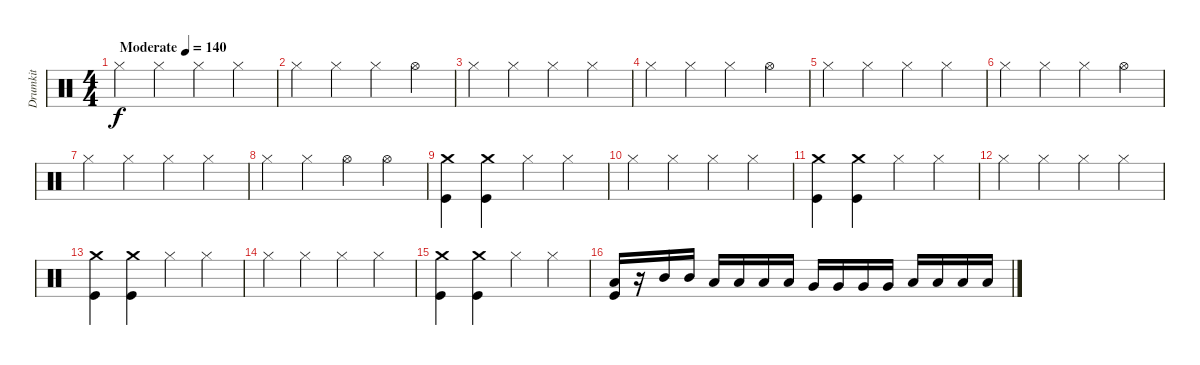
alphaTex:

\track ("Drumkit" "Drumkit") {instrument percussion}
\staff {score}
\articulation defaults
\ts (4 4)
\tempo (140 "Moderate")
\clef neutral
\ks c "Hi-Hat (closed)".4{dy f} "Hi-Hat (closed)".4 "Hi-Hat (closed)".4 "Hi-Hat (closed)".4
|
"Hi-Hat (closed)".4 "Hi-Hat (closed)".4 "Hi-Hat (closed)".4 "Hi-Hat (open)".4 |
"Hi-Hat (closed)".4 "Hi-Hat (closed)".4 "Hi-Hat (closed)".4 "Hi-Hat (closed)".4 |
"Hi-Hat (closed)".4 "Hi-Hat (closed)".4 "Hi-Hat (closed)".4 "Hi-Hat (open)".4 |
"Hi-Hat (closed)".4 "Hi-Hat (closed)".4 "Hi-Hat (closed)".4 "Hi-Hat (closed)".4 |
"Hi-Hat (closed)".4 "Hi-Hat (closed)".4 "Hi-Hat (closed)".4 "Hi-Hat (open)".4 |
"Hi-Hat (closed)".4 "Hi-Hat (closed)".4 "Hi-Hat (closed)".4 "Hi-Hat (closed)".4 |
"Hi-Hat (closed)".4 "Hi-Hat (closed)".4 "Hi-Hat (open)".4 "Hi-Hat (open)".4 |
("Crash medium (hit)" "Kick (hit)").4 ("Crash medium (hit)" "Kick (hit)").4 "Hi-Hat (closed)".4 "Hi-Hat (closed)".4 |
"Hi-Hat (closed)".4 "Hi-Hat (closed)".4 "Hi-Hat (closed)".4 "Hi-Hat (closed)".4 |
("Crash medium (hit)" "Kick (hit)").4 ("Crash medium (hit)" "Kick (hit)").4 "Hi-Hat (closed)".4 "Hi-Hat (closed)".4 |
"Hi-Hat (closed)".4 "Hi-Hat (closed)".4 "Hi-Hat (closed)".4 "Hi-Hat (closed)".4 |
("Crash medium (hit)" "Kick (hit)").4 ("Crash medium (hit)" "Kick (hit)").4 "Hi-Hat (closed)".4 "Hi-Hat (closed)".4 |
"Hi-Hat (closed)".4 "Hi-Hat (closed)".4 "Hi-Hat (closed)".4 "Hi-Hat (closed)".4 |
("Crash medium (hit)" "Kick (hit)").4 ("Crash medium (hit)" "Kick (hit)").4 "Hi-Hat (closed)".4 "Hi-Hat (closed)".4 |
("Kick (hit)" "Low Floor Tom (hit)").16 r.16 "Mid Tom (hit)".16 "Mid Tom (hit)".16 "Low Tom (hit)".16 "Low Tom (hit)".16 "Low Tom (hit)".16 "Low Tom (hit)".16 "Very Low Tom (hit)".16 "Very Low Tom (hit)".16 "Very Low Tom (hit)".16 "Very Low Tom (hit)".16 "Low Floor Tom (hit)".16 "Low Floor Tom (hit)".16 "Low Floor Tom (hit)".16 "Low Floor Tom (hit)".16
